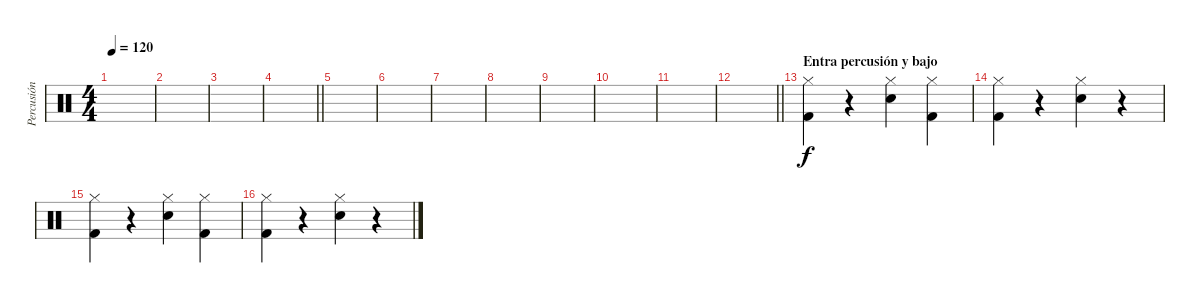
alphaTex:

\track ("Percusión" "Percusión") {instrument percussion}
\staff {score}
\articulation defaults
\ts (4 4)
\tempo 120
\clef neutral
\ks c
|
|
|
\barLineRight lightlight
|
|
|
|
|
|
|
|
\barLineRight lightlight
|
\section ("" "Entra percusión y bajo")
("Hi-Hat (closed)" "Kick (hit) 2").4 r.4 ("Hi-Hat (closed)" "Snare (hit) 2").4 ("Hi-Hat (closed)" "Kick (hit) 2").4 |
("Hi-Hat (closed)" "Kick (hit) 2").4 r.4 ("Hi-Hat (closed)" "Snare (hit) 2").4 r.4 |
("Hi-Hat (closed)" "Kick (hit) 2").4 r.4 ("Hi-Hat (closed)" "Snare (hit) 2").4 ("Hi-Hat (closed)" "Kick (hit) 2").4 |
("Hi-Hat (closed)" "Kick (hit) 2").4 r.4 ("Hi-Hat (closed)" "Snare (hit) 2").4 r.4
